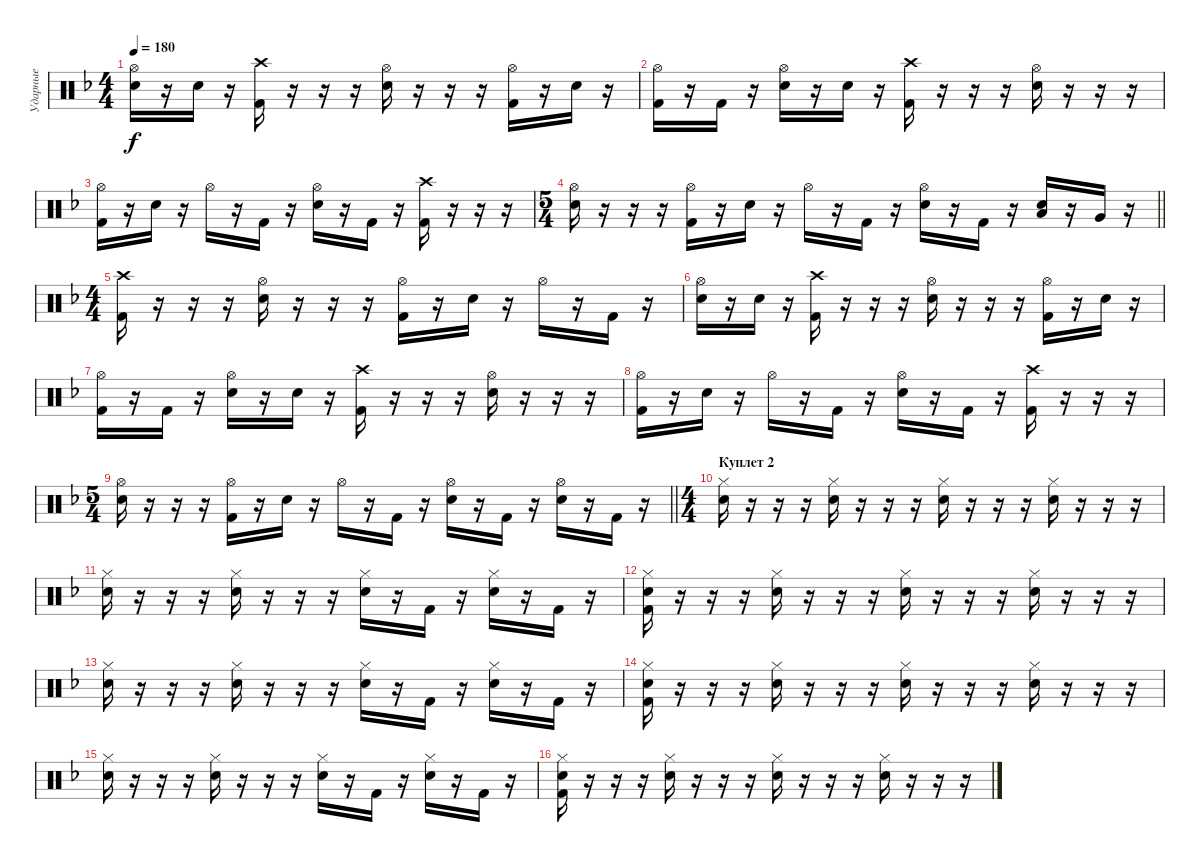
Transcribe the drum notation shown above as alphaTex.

\track ("Ударные" "Ударные") {instrument percussion}
\staff {score}
\articulation defaults
\ts (4 4)
\tempo 180
\clef neutral
\ks dminor
("Hi-Hat (open)" "Electric Snare (hit)").16{dy f} r.16 "Electric Snare (hit)".16 r.16 ("Crash high (hit)" "Kick (hit) 2").16 r.16 r.16 r.16 ("Hi-Hat (open)" "Electric Snare (hit)").16 r.16 r.16 r.16 ("Hi-Hat (open)" "Kick (hit) 2").16 r.16 "Electric Snare (hit)".16 r.16 |
("Hi-Hat (open)" "Kick (hit) 2").16 r.16 "Kick (hit) 2".16 r.16 ("Hi-Hat (open)" "Electric Snare (hit)").16 r.16 "Electric Snare (hit)".16 r.16 ("Crash high (hit)" "Kick (hit) 2").16 r.16 r.16 r.16 ("Hi-Hat (open)" "Electric Snare (hit)").16 r.16 r.16 r.16 |
("Hi-Hat (open)" "Kick (hit) 2").16 r.16 "Electric Snare (hit)".16 r.16 "Hi-Hat (open)".16 r.16 "Kick (hit) 2".16 r.16 ("Hi-Hat (open)" "Electric Snare (hit)").16 r.16 "Kick (hit) 2".16 r.16 ("Crash high (hit)" "Kick (hit) 2").16 r.16 r.16 r.16 |
\ts (5 4)
\barLineRight lightlight
("Hi-Hat (open)" "Electric Snare (hit)").16 r.16 r.16 r.16 ("Hi-Hat (open)" "Kick (hit) 2").16 r.16 "Electric Snare (hit)".16 r.16 "Hi-Hat (open)".16 r.16 "Kick (hit) 2".16 r.16 ("Hi-Hat (open)" "Electric Snare (hit)").16 r.16 "Kick (hit) 2".16 r.16 ("Electric Snare (hit)" "Low Tom (hit)").16 r.16 "Very Low Tom (hit)".16 r.16 |
\ts (4 4)
("Crash high (hit)" "Kick (hit) 2").16 r.16 r.16 r.16 ("Hi-Hat (open)" "Electric Snare (hit)").16 r.16 r.16 r.16 ("Hi-Hat (open)" "Kick (hit) 2").16 r.16 "Electric Snare (hit)".16 r.16 "Hi-Hat (open)".16 r.16 "Kick (hit) 2".16 r.16 |
("Hi-Hat (open)" "Electric Snare (hit)").16 r.16 "Electric Snare (hit)".16 r.16 ("Crash high (hit)" "Kick (hit) 2").16 r.16 r.16 r.16 ("Hi-Hat (open)" "Electric Snare (hit)").16 r.16 r.16 r.16 ("Hi-Hat (open)" "Kick (hit) 2").16 r.16 "Electric Snare (hit)".16 r.16 |
("Hi-Hat (open)" "Kick (hit) 2").16 r.16 "Kick (hit) 2".16 r.16 ("Hi-Hat (open)" "Electric Snare (hit)").16 r.16 "Electric Snare (hit)".16 r.16 ("Crash high (hit)" "Kick (hit) 2").16 r.16 r.16 r.16 ("Hi-Hat (open)" "Electric Snare (hit)").16 r.16 r.16 r.16 |
("Hi-Hat (open)" "Kick (hit) 2").16 r.16 "Electric Snare (hit)".16 r.16 "Hi-Hat (open)".16 r.16 "Kick (hit) 2".16 r.16 ("Hi-Hat (open)" "Electric Snare (hit)").16 r.16 "Kick (hit) 2".16 r.16 ("Crash high (hit)" "Kick (hit) 2").16 r.16 r.16 r.16 |
\ts (5 4)
\barLineRight lightlight
("Hi-Hat (open)" "Electric Snare (hit)").16 r.16 r.16 r.16 ("Hi-Hat (open)" "Kick (hit) 2").16 r.16 "Electric Snare (hit)".16 r.16 "Hi-Hat (open)".16 r.16 "Kick (hit) 2".16 r.16 ("Hi-Hat (open)" "Electric Snare (hit)").16 r.16 "Kick (hit) 2".16 r.16 ("Hi-Hat (open)" "Electric Snare (hit)").16 r.16 "Kick (hit) 2".16 r.16 |
\ts (4 4)
\section ("" "Куплет 2")
("Electric Snare (hit)" "Hi-Hat (closed)").16 r.16 r.16 r.16 ("Electric Snare (hit)" "Hi-Hat (closed)").16 r.16 r.16 r.16 ("Electric Snare (hit)" "Hi-Hat (closed)").16 r.16 r.16 r.16 ("Electric Snare (hit)" "Hi-Hat (closed)").16 r.16 r.16 r.16 |
("Electric Snare (hit)" "Hi-Hat (closed)").16 r.16 r.16 r.16 ("Electric Snare (hit)" "Hi-Hat (closed)").16 r.16 r.16 r.16 ("Electric Snare (hit)" "Hi-Hat (closed)").16 r.16 "Kick (hit) 2".16 r.16 ("Electric Snare (hit)" "Hi-Hat (closed)").16 r.16 "Kick (hit) 2".16 r.16 |
("Electric Snare (hit)" "Kick (hit) 2" "Hi-Hat (closed)").16 r.16 r.16 r.16 ("Electric Snare (hit)" "Hi-Hat (closed)").16 r.16 r.16 r.16 ("Electric Snare (hit)" "Hi-Hat (closed)").16 r.16 r.16 r.16 ("Electric Snare (hit)" "Hi-Hat (closed)").16 r.16 r.16 r.16 |
("Electric Snare (hit)" "Hi-Hat (closed)").16 r.16 r.16 r.16 ("Electric Snare (hit)" "Hi-Hat (closed)").16 r.16 r.16 r.16 ("Electric Snare (hit)" "Hi-Hat (closed)").16 r.16 "Kick (hit) 2".16 r.16 ("Electric Snare (hit)" "Hi-Hat (closed)").16 r.16 "Kick (hit) 2".16 r.16 |
("Electric Snare (hit)" "Kick (hit) 2" "Hi-Hat (closed)").16 r.16 r.16 r.16 ("Electric Snare (hit)" "Hi-Hat (closed)").16 r.16 r.16 r.16 ("Electric Snare (hit)" "Hi-Hat (closed)").16 r.16 r.16 r.16 ("Electric Snare (hit)" "Hi-Hat (closed)").16 r.16 r.16 r.16 |
("Electric Snare (hit)" "Hi-Hat (closed)").16 r.16 r.16 r.16 ("Electric Snare (hit)" "Hi-Hat (closed)").16 r.16 r.16 r.16 ("Electric Snare (hit)" "Hi-Hat (closed)").16 r.16 "Kick (hit) 2".16 r.16 ("Electric Snare (hit)" "Hi-Hat (closed)").16 r.16 "Kick (hit) 2".16 r.16 |
("Electric Snare (hit)" "Kick (hit) 2" "Hi-Hat (closed)").16 r.16 r.16 r.16 ("Electric Snare (hit)" "Hi-Hat (closed)").16 r.16 r.16 r.16 ("Electric Snare (hit)" "Hi-Hat (closed)").16 r.16 r.16 r.16 ("Electric Snare (hit)" "Hi-Hat (closed)").16 r.16 r.16 r.16
